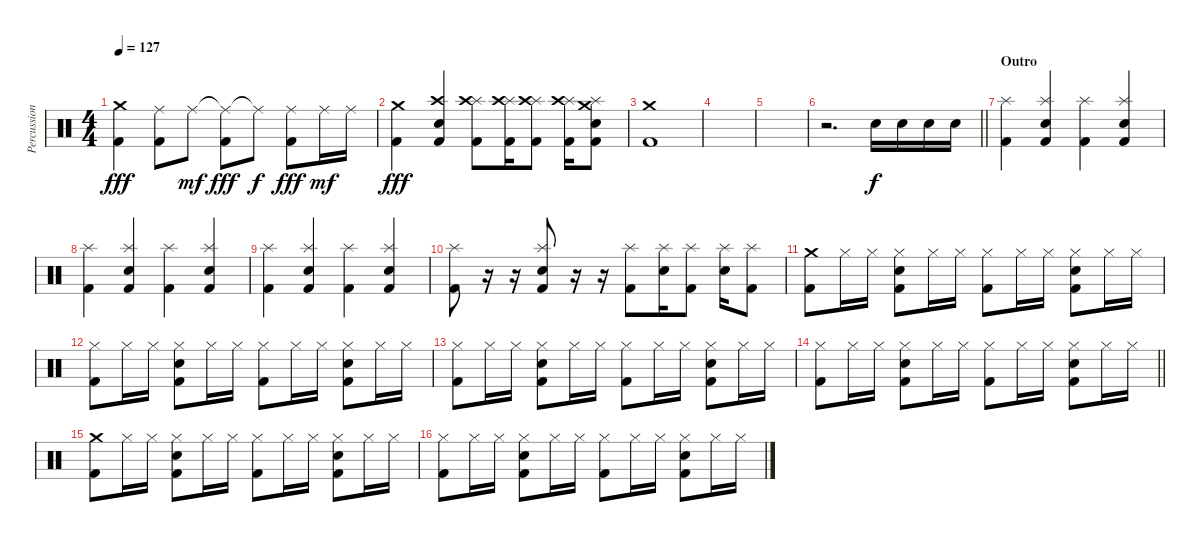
\track ("Percussion" "Percussion") {instrument percussion}
\staff {score}
\articulation defaults
\ts (4 4)
\tempo 127
\clef neutral
\ks c
("Crash medium (hit)" "Kick (hit) 2").4{dy fff} ("Ride (middle)" "Kick (hit) 2").8 "Ride (middle)".8{dy mf} ("Ride (middle)"{t} "Kick (hit) 2").8{dy fff} "Ride (middle)"{t}.8{dy f} ("Ride (middle)" "Kick (hit) 2").8{dy fff} "Ride (middle)".16{dy mf} "Ride (middle)".16 |
("Crash medium (hit)" "Kick (hit) 2").4{dy fff} ("Crash high (hit)" "Electric Snare (hit)" "Kick (hit) 2").4 ("Splash (hit)" "Crash high (hit)" "Kick (hit) 2").8 ("Splash (hit)" "Crash high (hit)" "Kick (hit) 2").16 ("Splash (hit)" "Crash high (hit)" "Kick (hit) 2").8 ("Splash (hit)" "Crash high (hit)" "Kick (hit) 2").16 ("Splash (hit)" "Crash medium (hit)" "Electric Snare (hit)" "Kick (hit) 2").8 |
("Crash medium (hit)" "Kick (hit) 2").1 |
|
|
\barLineRight lightlight
r.2{d} "Snare (hit) 2".16{dy f} "Snare (hit) 2".16 "Snare (hit) 2".16 "Snare (hit) 2".16 |
\section ("" "Outro")
("Splash (hit)" "Kick (hit) 2").4 ("Splash (hit)" "Snare (hit) 2" "Kick (hit) 2").4 ("Splash (hit)" "Kick (hit) 2").4 ("Splash (hit)" "Snare (hit) 2" "Kick (hit) 2").4 |
("Splash (hit)" "Kick (hit) 2").4 ("Splash (hit)" "Snare (hit) 2" "Kick (hit) 2").4 ("Splash (hit)" "Kick (hit) 2").4 ("Splash (hit)" "Snare (hit) 2" "Kick (hit) 2").4 |
("Splash (hit)" "Kick (hit) 2").4 ("Splash (hit)" "Snare (hit) 2" "Kick (hit) 2").4 ("Splash (hit)" "Kick (hit) 2").4 ("Splash (hit)" "Snare (hit) 2" "Kick (hit) 2").4 |
("Splash (hit)" "Kick (hit) 2").8 r.16 r.16 ("Splash (hit)" "Snare (hit) 2" "Kick (hit) 2").8 r.16 r.16 ("Splash (hit)" "Kick (hit) 2").8 ("Splash (hit)" "Snare (hit) 2").16 ("Splash (hit)" "Kick (hit) 2").8 ("Splash (hit)" "Snare (hit) 2").16 ("Splash (hit)" "Kick (hit) 2").8 |
("Crash medium (hit)" "Kick (hit) 2").8 "Hi-Hat (closed)".16 "Hi-Hat (closed)".16 ("Hi-Hat (closed)" "Snare (hit) 2" "Kick (hit) 2").8 "Hi-Hat (closed)".16 "Hi-Hat (closed)".16 ("Hi-Hat (closed)" "Kick (hit) 2").8 "Hi-Hat (closed)".16 "Hi-Hat (closed)".16 ("Hi-Hat (closed)" "Snare (hit) 2" "Kick (hit) 2").8 "Hi-Hat (closed)".16 "Hi-Hat (closed)".16 |
("Hi-Hat (closed)" "Kick (hit) 2").8 "Hi-Hat (closed)".16 "Hi-Hat (closed)".16 ("Hi-Hat (closed)" "Snare (hit) 2" "Kick (hit) 2").8 "Hi-Hat (closed)".16 "Hi-Hat (closed)".16 ("Hi-Hat (closed)" "Kick (hit) 2").8 "Hi-Hat (closed)".16 "Hi-Hat (closed)".16 ("Hi-Hat (closed)" "Snare (hit) 2" "Kick (hit) 2").8 "Hi-Hat (closed)".16 "Hi-Hat (closed)".16 |
("Hi-Hat (closed)" "Kick (hit) 2").8 "Hi-Hat (closed)".16 "Hi-Hat (closed)".16 ("Hi-Hat (closed)" "Snare (hit) 2" "Kick (hit) 2").8 "Hi-Hat (closed)".16 "Hi-Hat (closed)".16 ("Hi-Hat (closed)" "Kick (hit) 2").8 "Hi-Hat (closed)".16 "Hi-Hat (closed)".16 ("Hi-Hat (closed)" "Snare (hit) 2" "Kick (hit) 2").8 "Hi-Hat (closed)".16 "Hi-Hat (closed)".16 |
\barLineRight lightlight
("Hi-Hat (closed)" "Kick (hit) 2").8 "Hi-Hat (closed)".16 "Hi-Hat (closed)".16 ("Hi-Hat (closed)" "Snare (hit) 2" "Kick (hit) 2").8 "Hi-Hat (closed)".16 "Hi-Hat (closed)".16 ("Hi-Hat (closed)" "Kick (hit) 2").8 "Hi-Hat (closed)".16 "Hi-Hat (closed)".16 ("Hi-Hat (closed)" "Snare (hit) 2" "Kick (hit) 2").8 "Hi-Hat (closed)".16 "Hi-Hat (closed)".16 |
("Crash medium (hit)" "Kick (hit) 2").8 "Hi-Hat (closed)".16 "Hi-Hat (closed)".16 ("Hi-Hat (closed)" "Snare (hit) 2" "Kick (hit) 2").8 "Hi-Hat (closed)".16 "Hi-Hat (closed)".16 ("Hi-Hat (closed)" "Kick (hit) 2").8 "Hi-Hat (closed)".16 "Hi-Hat (closed)".16 ("Hi-Hat (closed)" "Snare (hit) 2" "Kick (hit) 2").8 "Hi-Hat (closed)".16 "Hi-Hat (closed)".16 |
("Hi-Hat (closed)" "Kick (hit) 2").8 "Hi-Hat (closed)".16 "Hi-Hat (closed)".16 ("Hi-Hat (closed)" "Snare (hit) 2" "Kick (hit) 2").8 "Hi-Hat (closed)".16 "Hi-Hat (closed)".16 ("Hi-Hat (closed)" "Kick (hit) 2").8 "Hi-Hat (closed)".16 "Hi-Hat (closed)".16 ("Hi-Hat (closed)" "Snare (hit) 2" "Kick (hit) 2").8 "Hi-Hat (closed)".16 "Hi-Hat (closed)".16
